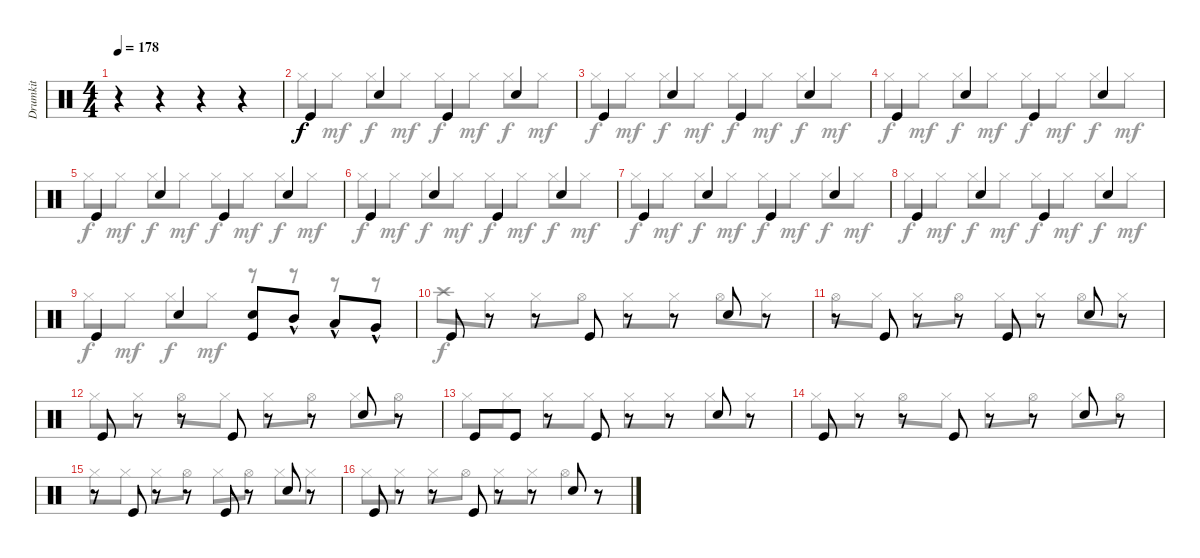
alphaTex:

\track ("Drumkit" "Drumkit") {instrument percussion}
\staff {score}
\articulation defaults
\voice
\ts (4 4)
\tempo 178
\clef neutral
\ks c
r.4{dy f} r.4 r.4 r.4 |
"Kick (hit)".4 "Snare (hit) 2".4 "Kick (hit)".4 "Snare (hit) 2".4 |
"Kick (hit)".4 "Snare (hit) 2".4 "Kick (hit)".4 "Snare (hit) 2".4 |
"Kick (hit)".4 "Snare (hit) 2".4 "Kick (hit)".4 "Snare (hit) 2".4 |
"Kick (hit)".4 "Snare (hit) 2".4 "Kick (hit)".4 "Snare (hit) 2".4 |
"Kick (hit)".4 "Snare (hit) 2".4 "Kick (hit)".4 "Snare (hit) 2".4 |
"Kick (hit)".4 "Snare (hit) 2".4 "Kick (hit)".4 "Snare (hit) 2".4 |
"Kick (hit)".4 "Snare (hit) 2".4 "Kick (hit)".4 "Snare (hit) 2".4 |
"Kick (hit)".4 "Snare (hit) 2".4 ("Kick (hit)" "Snare (hit) 2").8 "Mid Tom (hit)"{hac}.8 "Low Tom (hit)"{hac}.8 "Very Low Tom (hit)"{hac}.8 |
\section ("" "")
"Kick (hit)".8 r.8 r.8 "Kick (hit)".8 r.8 r.8 "Snare (hit) 2".8 r.8 |
r.8 "Kick (hit)".8 r.8 r.8 "Kick (hit)".8 r.8 "Snare (hit) 2".8 r.8 |
"Kick (hit)".8 r.8 r.8 "Kick (hit)".8 r.8 r.8 "Snare (hit) 2".8 r.8 |
"Kick (hit)".8 "Kick (hit)".8 r.8 "Kick (hit)".8 r.8 r.8 "Snare (hit) 2".8 r.8 |
"Kick (hit)".8 r.8 r.8 "Kick (hit)".8 r.8 r.8 "Snare (hit) 2".8 r.8 |
r.8 "Kick (hit)".8 r.8 r.8 "Kick (hit)".8 r.8 "Snare (hit) 2".8 r.8 |
"Kick (hit)".8 r.8 r.8 "Kick (hit)".8 r.8 r.8 "Snare (hit) 2".8 r.8
\voice
\clef neutral
\ottava regular
\simile none
\ks c
r.4{dy f} r.4 r.4 r.4 |
"Hi-Hat (closed)".8 "Hi-Hat (closed)".8{dy mf} "Hi-Hat (closed)".8{dy f} "Hi-Hat (closed)".8{dy mf} "Hi-Hat (closed)".8{dy f} "Hi-Hat (closed)".8{dy mf} "Hi-Hat (closed)".8{dy f} "Hi-Hat (closed)".8{dy mf} |
"Hi-Hat (closed)".8{dy f} "Hi-Hat (closed)".8{dy mf} "Hi-Hat (closed)".8{dy f} "Hi-Hat (closed)".8{dy mf} "Hi-Hat (closed)".8{dy f} "Hi-Hat (closed)".8{dy mf} "Hi-Hat (closed)".8{dy f} "Hi-Hat (closed)".8{dy mf} |
"Hi-Hat (closed)".8{dy f} "Hi-Hat (closed)".8{dy mf} "Hi-Hat (closed)".8{dy f} "Hi-Hat (closed)".8{dy mf} "Hi-Hat (closed)".8{dy f} "Hi-Hat (closed)".8{dy mf} "Hi-Hat (closed)".8{dy f} "Hi-Hat (closed)".8{dy mf} |
"Hi-Hat (closed)".8{dy f} "Hi-Hat (closed)".8{dy mf} "Hi-Hat (closed)".8{dy f} "Hi-Hat (closed)".8{dy mf} "Hi-Hat (closed)".8{dy f} "Hi-Hat (closed)".8{dy mf} "Hi-Hat (closed)".8{dy f} "Hi-Hat (closed)".8{dy mf} |
"Hi-Hat (closed)".8{dy f} "Hi-Hat (closed)".8{dy mf} "Hi-Hat (closed)".8{dy f} "Hi-Hat (closed)".8{dy mf} "Hi-Hat (closed)".8{dy f} "Hi-Hat (closed)".8{dy mf} "Hi-Hat (closed)".8{dy f} "Hi-Hat (closed)".8{dy mf} |
"Hi-Hat (closed)".8{dy f} "Hi-Hat (closed)".8{dy mf} "Hi-Hat (closed)".8{dy f} "Hi-Hat (closed)".8{dy mf} "Hi-Hat (closed)".8{dy f} "Hi-Hat (closed)".8{dy mf} "Hi-Hat (closed)".8{dy f} "Hi-Hat (closed)".8{dy mf} |
"Hi-Hat (closed)".8{dy f} "Hi-Hat (closed)".8{dy mf} "Hi-Hat (closed)".8{dy f} "Hi-Hat (closed)".8{dy mf} "Hi-Hat (closed)".8{dy f} "Hi-Hat (closed)".8{dy mf} "Hi-Hat (closed)".8{dy f} "Hi-Hat (closed)".8{dy mf} |
"Hi-Hat (closed)".8{dy f} "Hi-Hat (closed)".8{dy mf} "Hi-Hat (closed)".8{dy f} "Hi-Hat (closed)".8{dy mf} r.8 r.8 r.8 r.8 |
"Crash high (hit)".8{dy f} "Hi-Hat (closed)".8 "Hi-Hat (closed)".8 "Hi-Hat (open)".8 "Hi-Hat (closed)".8 "Hi-Hat (closed)".8 "Hi-Hat (open)".8 "Hi-Hat (closed)".8 |
"Hi-Hat (open)".8 "Hi-Hat (closed)".8 "Hi-Hat (closed)".8 "Hi-Hat (open)".8 "Hi-Hat (closed)".8 "Hi-Hat (closed)".8 "Hi-Hat (open)".8 "Hi-Hat (closed)".8 |
"Hi-Hat (closed)".8 "Hi-Hat (closed)".8 "Hi-Hat (open)".8 "Hi-Hat (closed)".8 "Hi-Hat (closed)".8 "Hi-Hat (open)".8 "Hi-Hat (closed)".8 "Hi-Hat (open)".8 |
"Hi-Hat (closed)".8 "Hi-Hat (closed)".8 "Hi-Hat (closed)".8 "Hi-Hat (closed)".8 "Hi-Hat (closed)".8 "Hi-Hat (closed)".8 "Hi-Hat (closed)".8 "Hi-Hat (closed)".8 |
"Hi-Hat (closed)".8 "Hi-Hat (closed)".8 "Hi-Hat (open)".8 "Hi-Hat (closed)".8 "Hi-Hat (closed)".8 "Hi-Hat (open)".8 "Hi-Hat (closed)".8 "Hi-Hat (open)".8 |
"Hi-Hat (closed)".8 "Hi-Hat (closed)".8 "Hi-Hat (closed)".8 "Hi-Hat (open)".8 "Hi-Hat (closed)".8 "Hi-Hat (open)".8 "Hi-Hat (closed)".8 "Hi-Hat (closed)".8 |
"Hi-Hat (closed)".8 "Hi-Hat (closed)".8 "Hi-Hat (closed)".8 "Hi-Hat (open)".8 "Hi-Hat (closed)".8 "Hi-Hat (closed)".8 "Hi-Hat (open)".4
